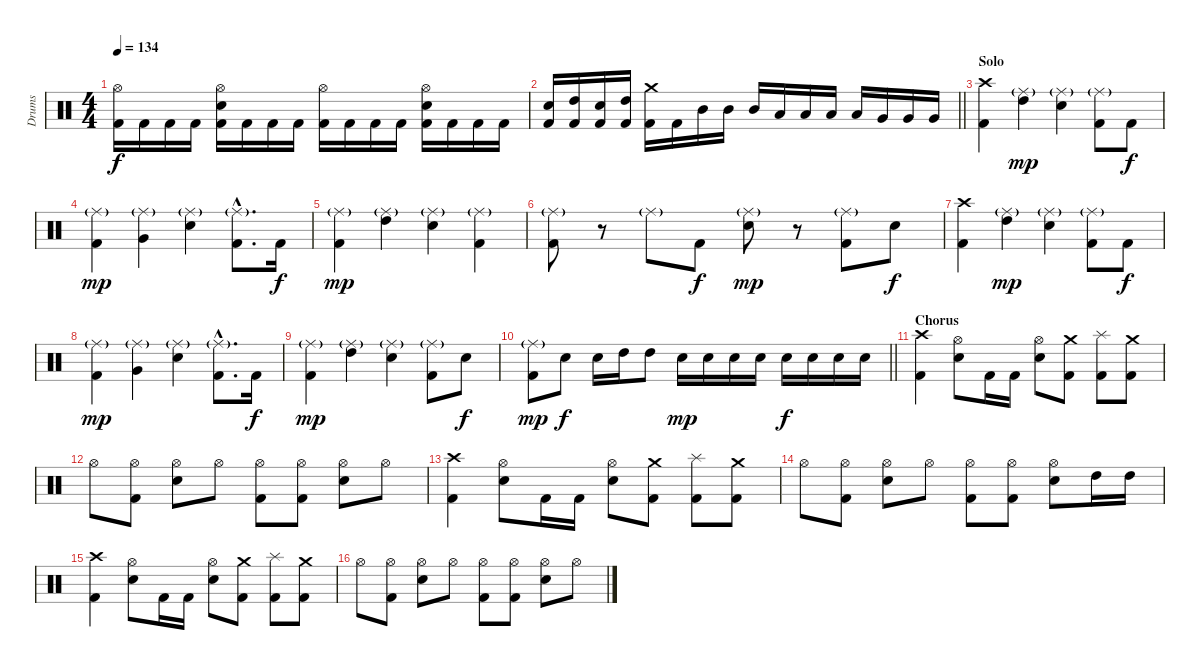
\track ("Drums" "Drums") {instrument percussion}
\staff {score}
\articulation defaults
\ts (4 4)
\tempo 134
\clef neutral
\ks c
("Hi-Hat (open)" "Kick (hit) 2").16{dy f} "Kick (hit) 2".16 "Kick (hit) 2".16 "Kick (hit) 2".16 ("Hi-Hat (open)" "Electric Snare (hit)" "Kick (hit) 2").16 "Kick (hit) 2".16 "Kick (hit) 2".16 "Kick (hit) 2".16 ("Hi-Hat (open)" "Kick (hit) 2").16 "Kick (hit) 2".16 "Kick (hit) 2".16 "Kick (hit) 2".16 ("Hi-Hat (open)" "Electric Snare (hit)" "Kick (hit) 2").16 "Kick (hit) 2".16 "Kick (hit) 2".16 "Kick (hit) 2".16 |
\barLineRight lightlight
("Electric Snare (hit)" "Kick (hit) 2").16 ("High Tom (hit)" "Kick (hit) 2").16 ("Electric Snare (hit)" "Kick (hit) 2").16 ("High Tom (hit)" "Kick (hit) 2").16 ("Crash medium (hit)" "Kick (hit) 2").16 "Kick (hit) 2".16 "Mid Tom (hit)".16 "Mid Tom (hit)".16 "Mid Tom (hit)".16 "Low Tom (hit)".16 "Low Tom (hit)".16 "Low Tom (hit)".16 "Low Tom (hit)".16 "Very Low Tom (hit)".16 "Very Low Tom (hit)".16 "Very Low Tom (hit)".16 |
\section ("" "Solo")
("Crash high (hit)" "Kick (hit) 2").4 ("Ride (middle)"{g} "High Tom (hit)").4{dy mp} ("Ride (middle)"{g} "Electric Snare (hit)").4 ("Ride (middle)"{g} "Kick (hit) 2").8 "Kick (hit) 2".8{dy f} |
("Ride (middle)"{g} "Kick (hit) 2").4{dy mp} ("Ride (middle)"{g} "Very Low Tom (hit)").4 ("Ride (middle)"{g} "Electric Snare (hit)").4 ("Ride (middle)"{g hac} "Kick (hit) 2"{hac}).8{d} "Kick (hit) 2".16{dy f} |
("Ride (middle)"{g} "Kick (hit) 2").4{dy mp} ("Ride (middle)"{g} "High Tom (hit)").4 ("Ride (middle)"{g} "Electric Snare (hit)").4 ("Ride (middle)"{g} "Kick (hit) 2").4 |
("Ride (middle)"{g} "Kick (hit) 2").8 r.8 "Ride (middle)"{g}.8 "Kick (hit) 2".8{dy f} ("Ride (middle)"{g} "Electric Snare (hit)").8{dy mp} r.8 ("Ride (middle)"{g} "Kick (hit) 2").8 "Electric Snare (hit)".8{dy f} |
("Crash high (hit)" "Kick (hit) 2").4 ("Ride (middle)"{g} "High Tom (hit)").4{dy mp} ("Ride (middle)"{g} "Electric Snare (hit)").4 ("Ride (middle)"{g} "Kick (hit) 2").8 "Kick (hit) 2".8{dy f} |
("Ride (middle)"{g} "Kick (hit) 2").4{dy mp} ("Ride (middle)"{g} "Very Low Tom (hit)").4 ("Ride (middle)"{g} "Electric Snare (hit)").4 ("Ride (middle)"{g hac} "Kick (hit) 2"{hac}).8{d} "Kick (hit) 2".16{dy f} |
("Ride (middle)"{g} "Kick (hit) 2").4{dy mp} ("Ride (middle)"{g} "High Tom (hit)").4 ("Ride (middle)"{g} "Electric Snare (hit)").4 ("Ride (middle)"{g} "Kick (hit) 2").8 "Electric Snare (hit)".8{dy f} |
\barLineRight lightlight
("Ride (middle)"{g} "Kick (hit) 2").8{dy mp} "Electric Snare (hit)".8{dy f} "Electric Snare (hit)".16 "High Tom (hit)".16 "High Tom (hit)".8 "Electric Snare (hit)".16{dy mp} "Electric Snare (hit)".16 "Electric Snare (hit)".16 "Electric Snare (hit)".16 "Electric Snare (hit)".16{dy f} "Electric Snare (hit)".16 "Electric Snare (hit)".16 "Electric Snare (hit)".16 |
\section ("" "Chorus")
("Crash high (hit)" "Kick (hit) 2").4 ("Hi-Hat (open)" "Electric Snare (hit)").8 "Kick (hit) 2".16 "Kick (hit) 2".16 ("Hi-Hat (open)" "Electric Snare (hit)").8 ("Crash medium (hit)" "Kick (hit) 2").8 ("Splash (hit)" "Kick (hit) 2").8 ("Crash medium (hit)" "Kick (hit) 2").8 |
"Hi-Hat (open)".8 ("Hi-Hat (open)" "Kick (hit) 2").8 ("Hi-Hat (open)" "Electric Snare (hit)").8 "Hi-Hat (open)".8 ("Hi-Hat (open)" "Kick (hit) 2").8 ("Hi-Hat (open)" "Kick (hit) 2").8 ("Hi-Hat (open)" "Electric Snare (hit)").8 "Hi-Hat (open)".8 |
("Crash high (hit)" "Kick (hit) 2").4 ("Hi-Hat (open)" "Electric Snare (hit)").8 "Kick (hit) 2".16 "Kick (hit) 2".16 ("Hi-Hat (open)" "Electric Snare (hit)").8 ("Crash medium (hit)" "Kick (hit) 2").8 ("Splash (hit)" "Kick (hit) 2").8 ("Crash medium (hit)" "Kick (hit) 2").8 |
"Hi-Hat (open)".8 ("Hi-Hat (open)" "Kick (hit) 2").8 ("Hi-Hat (open)" "Electric Snare (hit)").8 "Hi-Hat (open)".8 ("Hi-Hat (open)" "Kick (hit) 2").8 ("Hi-Hat (open)" "Kick (hit) 2").8 ("Hi-Hat (open)" "Electric Snare (hit)").8 "High Tom (hit)".16 "High Tom (hit)".16 |
("Crash high (hit)" "Kick (hit) 2").4 ("Hi-Hat (open)" "Electric Snare (hit)").8 "Kick (hit) 2".16 "Kick (hit) 2".16 ("Hi-Hat (open)" "Electric Snare (hit)").8 ("Crash medium (hit)" "Kick (hit) 2").8 ("Splash (hit)" "Kick (hit) 2").8 ("Crash medium (hit)" "Kick (hit) 2").8 |
"Hi-Hat (open)".8 ("Hi-Hat (open)" "Kick (hit) 2").8 ("Hi-Hat (open)" "Electric Snare (hit)").8 "Hi-Hat (open)".8 ("Hi-Hat (open)" "Kick (hit) 2").8 ("Hi-Hat (open)" "Kick (hit) 2").8 ("Hi-Hat (open)" "Electric Snare (hit)").8 "Hi-Hat (open)".8
